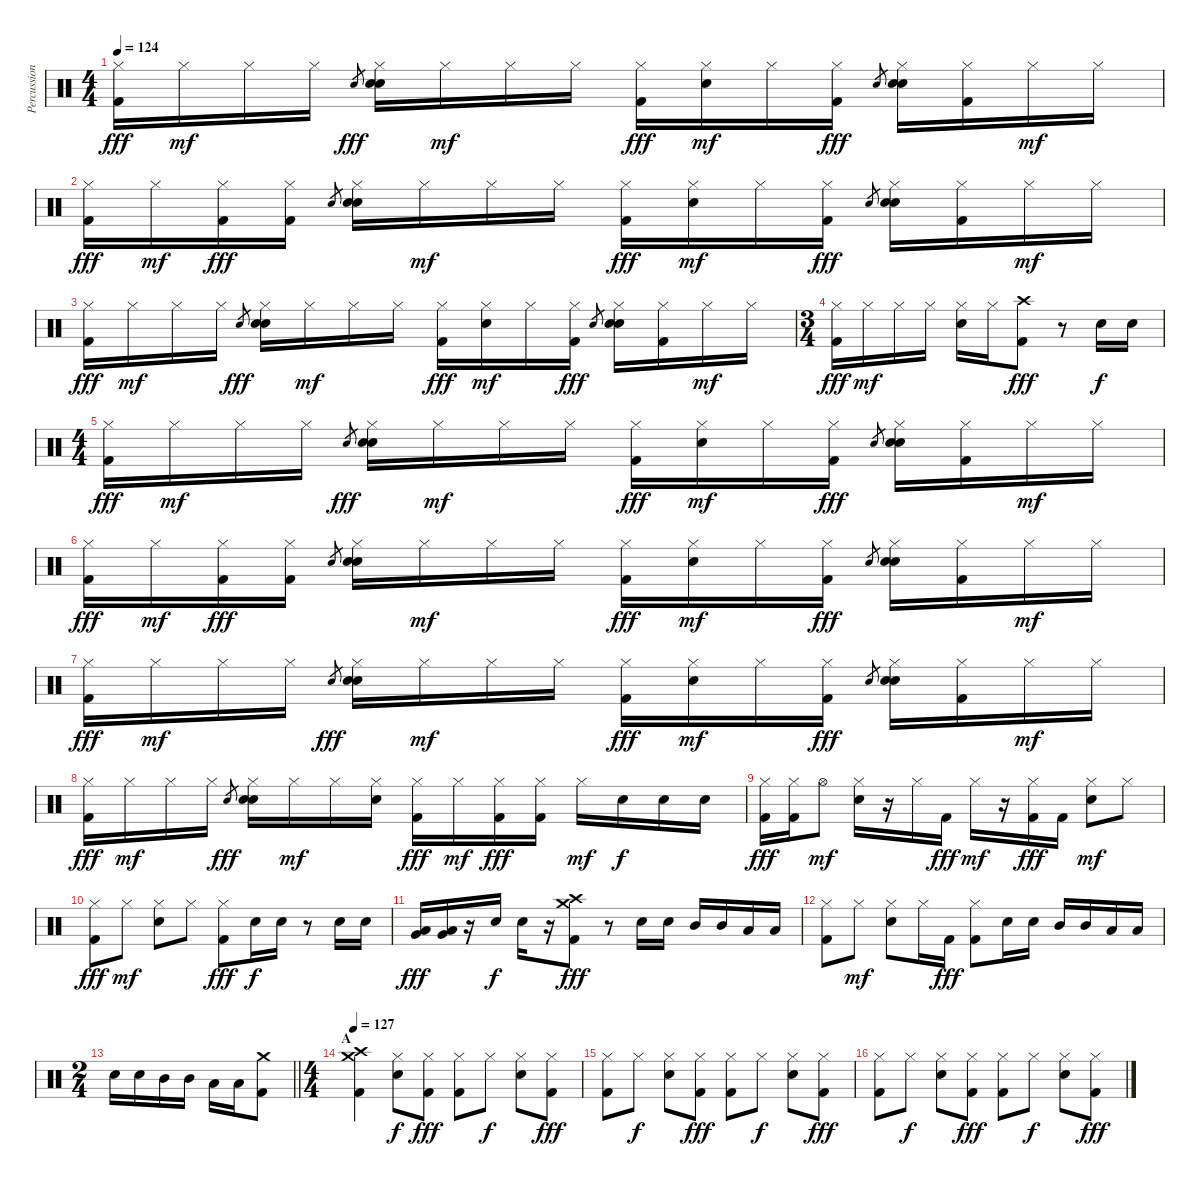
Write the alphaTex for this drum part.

\track ("Percussion" "Percussion") {instrument percussion}
\staff {score}
\articulation defaults
\ts (4 4)
\tempo 124
\clef neutral
\ks c
("Hi-Hat (closed)" "Kick (hit) 2").16{dy fff} "Hi-Hat (closed)".16{dy mf} "Hi-Hat (closed)".16 "Hi-Hat (closed)".16 "Hand Clap (hit)".8{gr dy fff} ("Hi-Hat (closed)" "Hand Clap (hit)" "Snare (hit) 2").16 "Hi-Hat (closed)".16{dy mf} "Hi-Hat (closed)".16 "Hi-Hat (closed)".16 ("Hi-Hat (closed)" "Kick (hit) 2").16{dy fff} ("Hi-Hat (closed)" "Snare (hit) 2").16{dy mf} "Hi-Hat (closed)".16 ("Hi-Hat (closed)" "Kick (hit) 2").16{dy fff} "Hand Clap (hit)".8{gr} ("Hi-Hat (closed)" "Hand Clap (hit)" "Snare (hit) 2").16 ("Hi-Hat (closed)" "Kick (hit) 2").16 "Hi-Hat (closed)".16{dy mf} "Hi-Hat (closed)".16 |
("Hi-Hat (closed)" "Kick (hit) 2").16{dy fff} "Hi-Hat (closed)".16{dy mf} ("Hi-Hat (closed)" "Kick (hit) 2").16{dy fff} ("Hi-Hat (closed)" "Kick (hit) 2").16 "Hand Clap (hit)".8{gr} ("Hi-Hat (closed)" "Hand Clap (hit)" "Snare (hit) 2").16 "Hi-Hat (closed)".16{dy mf} "Hi-Hat (closed)".16 "Hi-Hat (closed)".16 ("Hi-Hat (closed)" "Kick (hit) 2").16{dy fff} ("Hi-Hat (closed)" "Snare (hit) 2").16{dy mf} "Hi-Hat (closed)".16 ("Hi-Hat (closed)" "Kick (hit) 2").16{dy fff} "Hand Clap (hit)".8{gr} ("Hi-Hat (closed)" "Hand Clap (hit)" "Snare (hit) 2").16 ("Hi-Hat (closed)" "Kick (hit) 2").16 "Hi-Hat (closed)".16{dy mf} "Hi-Hat (closed)".16 |
("Hi-Hat (closed)" "Kick (hit) 2").16{dy fff} "Hi-Hat (closed)".16{dy mf} "Hi-Hat (closed)".16 "Hi-Hat (closed)".16 "Hand Clap (hit)".8{gr dy fff} ("Hi-Hat (closed)" "Hand Clap (hit)" "Snare (hit) 2").16 "Hi-Hat (closed)".16{dy mf} "Hi-Hat (closed)".16 "Hi-Hat (closed)".16 ("Hi-Hat (closed)" "Kick (hit) 2").16{dy fff} ("Hi-Hat (closed)" "Snare (hit) 2").16{dy mf} "Hi-Hat (closed)".16 ("Hi-Hat (closed)" "Kick (hit) 2").16{dy fff} "Hand Clap (hit)".8{gr} ("Hi-Hat (closed)" "Hand Clap (hit)" "Snare (hit) 2").16 ("Hi-Hat (closed)" "Kick (hit) 2").16 "Hi-Hat (closed)".16{dy mf} "Hi-Hat (closed)".16 |
\ts (3 4)
("Hi-Hat (closed)" "Kick (hit) 2").16{dy fff} "Hi-Hat (closed)".16{dy mf} "Hi-Hat (closed)".16 "Hi-Hat (closed)".16 ("Hi-Hat (closed)" "Snare (hit) 2").16 "Hi-Hat (closed)".16 ("Crash high (hit)" "Kick (hit) 2").8{dy fff} r.8 "Snare (hit) 2".16{dy f} "Snare (hit) 2".16 |
\ts (4 4)
("Hi-Hat (closed)" "Kick (hit) 2").16{dy fff} "Hi-Hat (closed)".16{dy mf} "Hi-Hat (closed)".16 "Hi-Hat (closed)".16 "Hand Clap (hit)".8{gr dy fff} ("Hi-Hat (closed)" "Hand Clap (hit)" "Snare (hit) 2").16 "Hi-Hat (closed)".16{dy mf} "Hi-Hat (closed)".16 "Hi-Hat (closed)".16 ("Hi-Hat (closed)" "Kick (hit) 2").16{dy fff} ("Hi-Hat (closed)" "Snare (hit) 2").16{dy mf} "Hi-Hat (closed)".16 ("Hi-Hat (closed)" "Kick (hit) 2").16{dy fff} "Hand Clap (hit)".8{gr} ("Hi-Hat (closed)" "Hand Clap (hit)" "Snare (hit) 2").16 ("Hi-Hat (closed)" "Kick (hit) 2").16 "Hi-Hat (closed)".16{dy mf} "Hi-Hat (closed)".16 |
("Hi-Hat (closed)" "Kick (hit) 2").16{dy fff} "Hi-Hat (closed)".16{dy mf} ("Hi-Hat (closed)" "Kick (hit) 2").16{dy fff} ("Hi-Hat (closed)" "Kick (hit) 2").16 "Hand Clap (hit)".8{gr} ("Hi-Hat (closed)" "Hand Clap (hit)" "Snare (hit) 2").16 "Hi-Hat (closed)".16{dy mf} "Hi-Hat (closed)".16 "Hi-Hat (closed)".16 ("Hi-Hat (closed)" "Kick (hit) 2").16{dy fff} ("Hi-Hat (closed)" "Snare (hit) 2").16{dy mf} "Hi-Hat (closed)".16 ("Hi-Hat (closed)" "Kick (hit) 2").16{dy fff} "Hand Clap (hit)".8{gr} ("Hi-Hat (closed)" "Hand Clap (hit)" "Snare (hit) 2").16 ("Hi-Hat (closed)" "Kick (hit) 2").16 "Hi-Hat (closed)".16{dy mf} "Hi-Hat (closed)".16 |
("Hi-Hat (closed)" "Kick (hit) 2").16{dy fff} "Hi-Hat (closed)".16{dy mf} "Hi-Hat (closed)".16 "Hi-Hat (closed)".16 "Hand Clap (hit)".8{gr dy fff} ("Hi-Hat (closed)" "Hand Clap (hit)" "Snare (hit) 2").16 "Hi-Hat (closed)".16{dy mf} "Hi-Hat (closed)".16 "Hi-Hat (closed)".16 ("Hi-Hat (closed)" "Kick (hit) 2").16{dy fff} ("Hi-Hat (closed)" "Snare (hit) 2").16{dy mf} "Hi-Hat (closed)".16 ("Hi-Hat (closed)" "Kick (hit) 2").16{dy fff} "Hand Clap (hit)".8{gr} ("Hi-Hat (closed)" "Hand Clap (hit)" "Snare (hit) 2").16 ("Hi-Hat (closed)" "Kick (hit) 2").16 "Hi-Hat (closed)".16{dy mf} "Hi-Hat (closed)".16 |
("Hi-Hat (closed)" "Kick (hit) 2").16{dy fff} "Hi-Hat (closed)".16{dy mf} "Hi-Hat (closed)".16 "Hi-Hat (closed)".16 "Hand Clap (hit)".8{gr dy fff} ("Hi-Hat (closed)" "Hand Clap (hit)" "Snare (hit) 2").16 "Hi-Hat (closed)".16{dy mf} "Hi-Hat (closed)".16 ("Hi-Hat (closed)" "Snare (hit) 2").16 ("Hi-Hat (closed)" "Kick (hit) 2").16{dy fff} "Hi-Hat (closed)".16{dy mf} ("Hi-Hat (closed)" "Kick (hit) 2").16{dy fff} ("Hi-Hat (closed)" "Kick (hit) 2").16 "Hi-Hat (closed)".16{dy mf} "Snare (hit) 2".16{dy f} "Snare (hit) 2".16 "Snare (hit) 2".16 |
("Hi-Hat (closed)" "Kick (hit) 2").16{dy fff} ("Hi-Hat (closed)" "Kick (hit) 2").16 "Hi-Hat (open)".8{dy mf} ("Hi-Hat (closed)" "Snare (hit) 2").16 r.16 "Hi-Hat (closed)".16 "Kick (hit) 2".16{dy fff} "Hi-Hat (closed)".16{dy mf} r.16 ("Hi-Hat (closed)" "Kick (hit) 2").16{dy fff} "Kick (hit) 2".16 ("Hi-Hat (closed)" "Snare (hit) 2").8{dy mf} "Hi-Hat (closed)".8 |
("Hi-Hat (closed)" "Kick (hit) 2").8{dy fff} "Hi-Hat (closed)".8{dy mf} ("Hi-Hat (closed)" "Snare (hit) 2").8 "Hi-Hat (closed)".8 ("Hi-Hat (closed)" "Kick (hit) 2").8{dy fff} "Snare (hit) 2".16{dy f} "Snare (hit) 2".16 r.8 "Snare (hit) 2".16 "Snare (hit) 2".16 |
("Very Low Tom (hit)" "Low Tom (hit)").16{dy fff} ("Very Low Tom (hit)" "Low Tom (hit)").16 r.16 "Snare (hit) 2".16{dy f} "Snare (hit) 2".16 r.16 ("Crash high (hit)" "Crash medium (hit)" "Kick (hit) 2").8{dy fff} r.8 "Snare (hit) 2".16 "Snare (hit) 2".16 "Mid Tom (hit)".16 "Mid Tom (hit)".16 "Low Tom (hit)".16 "Low Tom (hit)".16 |
("Hi-Hat (closed)" "Kick (hit) 2").8 "Hi-Hat (closed)".8{dy mf} ("Hi-Hat (closed)" "Snare (hit) 2").8 "Hi-Hat (closed)".16 "Kick (hit) 2".16{dy fff} ("Hi-Hat (closed)" "Kick (hit) 2").8 "Snare (hit) 2".16 "Snare (hit) 2".16 "Mid Tom (hit)".16 "Mid Tom (hit)".16 "Low Tom (hit)".16 "Low Tom (hit)".16 |
\ts (2 4)
\barLineRight lightlight "Snare (hit) 2".16 "Snare (hit) 2".16 "Mid Tom (hit)".16 "Mid Tom (hit)".16 "Low Tom (hit)".16 "Low Tom (hit)".16
("Crash medium (hit)" "Kick (hit) 2").8 |
\ts (4 4)
\section ("" "A")
\tempo 127
("Crash high (hit)" "Crash medium (hit)" "Kick (hit) 2").4{volume 16} ("Hi-Hat (closed)" "Electric Snare (hit)").8{dy f} ("Hi-Hat (closed)" "Kick (hit) 2").8{dy fff} ("Hi-Hat (closed)" "Kick (hit) 2").8 "Hi-Hat (closed)".8{dy f} ("Hi-Hat (closed)" "Electric Snare (hit)").8 ("Hi-Hat (closed)" "Kick (hit) 2").8{dy fff} |
("Hi-Hat (closed)" "Kick (hit) 2").8 "Hi-Hat (closed)".8{dy f} ("Hi-Hat (closed)" "Electric Snare (hit)").8 ("Hi-Hat (closed)" "Kick (hit) 2").8{dy fff} ("Hi-Hat (closed)" "Kick (hit) 2").8 "Hi-Hat (closed)".8{dy f} ("Hi-Hat (closed)" "Electric Snare (hit)").8 ("Hi-Hat (closed)" "Kick (hit) 2").8{dy fff} |
("Hi-Hat (closed)" "Kick (hit) 2").8 "Hi-Hat (closed)".8{dy f} ("Hi-Hat (closed)" "Electric Snare (hit)").8 ("Hi-Hat (closed)" "Kick (hit) 2").8{dy fff} ("Hi-Hat (closed)" "Kick (hit) 2").8 "Hi-Hat (closed)".8{dy f} ("Hi-Hat (closed)" "Electric Snare (hit)").8 ("Hi-Hat (closed)" "Kick (hit) 2").8{dy fff}
